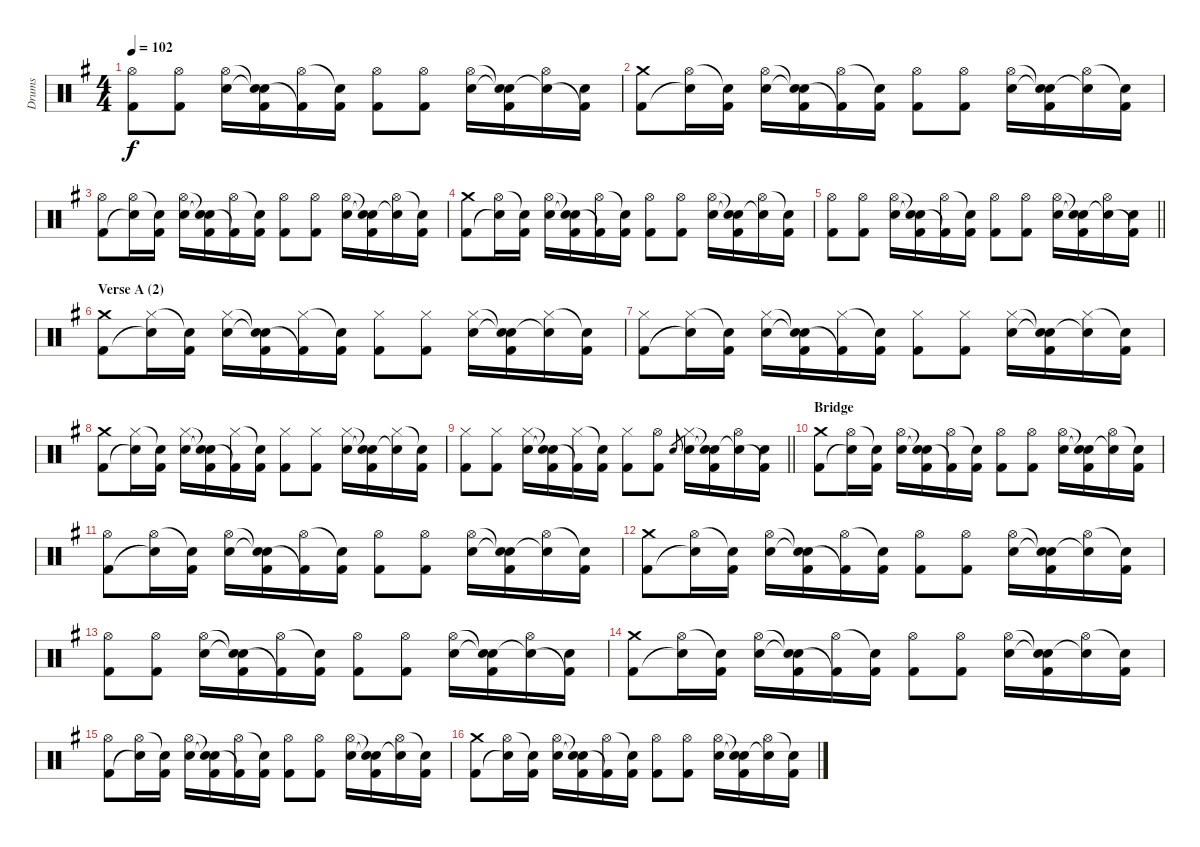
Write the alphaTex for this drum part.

\track ("Drums" "Drums") {instrument percussion}
\staff {score}
\articulation defaults
\ts (4 4)
\tempo 102
\clef neutral
\ks eminor
("Hi-Hat (open)" "Kick (hit) 2").8{dy f} ("Hi-Hat (open)" "Kick (hit) 2").8 ("Hi-Hat (open)" "Electric Snare (hit)").16 ("Snare (hit)"{t} "Snare (hit)"{t} "Kick (hit) 2").16 ("Hi-Hat (open)" "Kick (hit) 2"{t}).16 ("Snare (hit)"{t} "Kick (hit) 2").16 ("Hi-Hat (open)" "Kick (hit) 2").8 ("Hi-Hat (open)" "Kick (hit) 2").8 ("Hi-Hat (open)" "Electric Snare (hit)").16 ("Snare (hit)"{t} "Snare (hit)"{t} "Kick (hit) 2").16 ("Hi-Hat (open)" "Snare (hit)"{t}).16 ("Electric Snare (hit)" "Kick (hit) 2"{t}).16 |
("Crash medium (hit)" "Kick (hit) 2").8 ("Hi-Hat (open)" "Snare (hit)"{t}).16 ("Snare (hit)"{t} "Kick (hit) 2").16 ("Hi-Hat (open)" "Electric Snare (hit)").16 ("Snare (hit)"{t} "Snare (hit)"{t} "Kick (hit) 2").16 ("Hi-Hat (open)" "Kick (hit) 2"{t}).16 ("Snare (hit)"{t} "Kick (hit) 2").16 ("Hi-Hat (open)" "Kick (hit) 2").8 ("Hi-Hat (open)" "Kick (hit) 2").8 ("Hi-Hat (open)" "Electric Snare (hit)").16 ("Snare (hit)"{t} "Snare (hit)"{t} "Kick (hit) 2").16 ("Hi-Hat (open)" "Snare (hit)"{t}).16 ("Snare (hit)"{t} "Kick (hit) 2").16 |
("Hi-Hat (open)" "Kick (hit) 2").8 ("Hi-Hat (open)" "Snare (hit)"{t}).16 ("Snare (hit)"{t} "Kick (hit) 2").16 ("Hi-Hat (open)" "Electric Snare (hit)").16 ("Snare (hit)"{t} "Snare (hit)"{t} "Kick (hit) 2").16 ("Hi-Hat (open)" "Kick (hit) 2"{t}).16 ("Snare (hit)"{t} "Kick (hit) 2").16 ("Hi-Hat (open)" "Kick (hit) 2").8 ("Hi-Hat (open)" "Kick (hit) 2").8 ("Hi-Hat (open)" "Electric Snare (hit)").16 ("Snare (hit)"{t} "Snare (hit)"{t} "Kick (hit) 2").16 ("Hi-Hat (open)" "Snare (hit)"{t}).16 ("Snare (hit)"{t} "Kick (hit) 2").16 |
("Crash medium (hit)" "Kick (hit) 2").8 ("Hi-Hat (open)" "Snare (hit)"{t}).16 ("Snare (hit)"{t} "Kick (hit) 2").16 ("Hi-Hat (open)" "Electric Snare (hit)").16 ("Snare (hit)"{t} "Snare (hit)"{t} "Kick (hit) 2").16 ("Hi-Hat (open)" "Kick (hit) 2"{t}).16 ("Snare (hit)"{t} "Kick (hit) 2").16 ("Hi-Hat (open)" "Kick (hit) 2").8 ("Hi-Hat (open)" "Kick (hit) 2").8 ("Hi-Hat (open)" "Electric Snare (hit)").16 ("Snare (hit)"{t} "Snare (hit)"{t} "Kick (hit) 2").16 ("Hi-Hat (open)" "Snare (hit)"{t}).16 ("Snare (hit)"{t} "Kick (hit) 2").16 |
\barLineRight lightlight
("Hi-Hat (open)" "Kick (hit) 2").8 ("Hi-Hat (open)" "Kick (hit) 2").8 ("Hi-Hat (open)" "Electric Snare (hit)").16 ("Snare (hit)"{t} "Snare (hit)"{t} "Kick (hit) 2").16 ("Hi-Hat (open)" "Kick (hit) 2"{t}).16 ("Snare (hit)"{t} "Kick (hit) 2").16 ("Hi-Hat (open)" "Kick (hit) 2").8 ("Hi-Hat (open)" "Kick (hit) 2").8 ("Hi-Hat (open)" "Electric Snare (hit)").16 ("Snare (hit)"{t} "Snare (hit)"{t} "Kick (hit) 2").16 ("Hi-Hat (open)" "Snare (hit)"{t}).16 ("Electric Snare (hit)" "Kick (hit) 2"{t}).16 |
\section ("" "Verse A (2)")
("Crash medium (hit)" "Kick (hit) 2").8 ("Hi-Hat (closed)" "Snare (hit)"{t}).16 ("Snare (hit)"{t} "Kick (hit) 2").16 ("Hi-Hat (closed)" "Electric Snare (hit)").16 ("Snare (hit)"{t} "Snare (hit)"{t} "Kick (hit) 2").16 ("Hi-Hat (closed)" "Kick (hit) 2"{t}).16 ("Snare (hit)"{t} "Kick (hit) 2").16 ("Hi-Hat (closed)" "Kick (hit) 2").8 ("Hi-Hat (closed)" "Kick (hit) 2").8 ("Hi-Hat (closed)" "Electric Snare (hit)").16 ("Snare (hit)"{t} "Snare (hit)"{t} "Kick (hit) 2").16 ("Hi-Hat (closed)" "Snare (hit)"{t}).16 ("Snare (hit)"{t} "Kick (hit) 2").16 |
("Hi-Hat (closed)" "Kick (hit) 2").8 ("Hi-Hat (closed)" "Snare (hit)"{t}).16 ("Snare (hit)"{t} "Kick (hit) 2").16 ("Hi-Hat (closed)" "Electric Snare (hit)").16 ("Snare (hit)"{t} "Snare (hit)"{t} "Kick (hit) 2").16 ("Hi-Hat (closed)" "Kick (hit) 2"{t}).16 ("Snare (hit)"{t} "Kick (hit) 2").16 ("Hi-Hat (closed)" "Kick (hit) 2").8 ("Hi-Hat (closed)" "Kick (hit) 2").8 ("Hi-Hat (closed)" "Electric Snare (hit)").16 ("Snare (hit)"{t} "Snare (hit)"{t} "Kick (hit) 2").16 ("Hi-Hat (closed)" "Snare (hit)"{t}).16 ("Snare (hit)"{t} "Kick (hit) 2").16 |
("Crash medium (hit)" "Kick (hit) 2").8 ("Hi-Hat (closed)" "Snare (hit)"{t}).16 ("Snare (hit)"{t} "Kick (hit) 2").16 ("Hi-Hat (closed)" "Electric Snare (hit)").16 ("Snare (hit)"{t} "Snare (hit)"{t} "Kick (hit) 2").16 ("Hi-Hat (closed)" "Kick (hit) 2"{t}).16 ("Snare (hit)"{t} "Kick (hit) 2").16 ("Hi-Hat (closed)" "Kick (hit) 2").8 ("Hi-Hat (closed)" "Kick (hit) 2").8 ("Hi-Hat (closed)" "Electric Snare (hit)").16 ("Snare (hit)"{t} "Snare (hit)"{t} "Kick (hit) 2").16 ("Hi-Hat (closed)" "Snare (hit)"{t}).16 ("Snare (hit)"{t} "Kick (hit) 2").16 |
\barLineRight lightlight
("Hi-Hat (closed)" "Kick (hit) 2").8 ("Hi-Hat (closed)" "Kick (hit) 2").8 ("Hi-Hat (closed)" "Electric Snare (hit)").16 ("Snare (hit)"{t} "Snare (hit)"{t} "Kick (hit) 2").16 ("Hi-Hat (closed)" "Kick (hit) 2"{t}).16 ("Snare (hit)"{t} "Kick (hit) 2").16 ("Hi-Hat (closed)" "Kick (hit) 2").8 ("Hi-Hat (open)" "Kick (hit) 2").8 "Electric Snare (hit)".8{gr} ("Hi-Hat (closed)" "Electric Snare (hit)").16 ("Snare (hit)"{t} "Snare (hit)"{t} "Kick (hit) 2").16 ("Hi-Hat (open)" "Snare (hit)"{t}).16 ("Electric Snare (hit)" "Kick (hit) 2"{t}).16 |
\section ("" "Bridge")
("Crash medium (hit)" "Kick (hit) 2").8 ("Hi-Hat (open)" "Snare (hit)"{t}).16 ("Snare (hit)"{t} "Kick (hit) 2").16 ("Hi-Hat (open)" "Electric Snare (hit)").16 ("Snare (hit)"{t} "Snare (hit)"{t} "Kick (hit) 2").16 ("Hi-Hat (open)" "Kick (hit) 2"{t}).16 ("Snare (hit)"{t} "Kick (hit) 2").16 ("Hi-Hat (open)" "Kick (hit) 2").8 ("Hi-Hat (open)" "Kick (hit) 2").8 ("Hi-Hat (open)" "Electric Snare (hit)").16 ("Snare (hit)"{t} "Snare (hit)"{t} "Kick (hit) 2").16 ("Hi-Hat (open)" "Snare (hit)"{t}).16 ("Snare (hit)"{t} "Kick (hit) 2").16 |
("Hi-Hat (open)" "Kick (hit) 2").8 ("Hi-Hat (open)" "Snare (hit)"{t}).16 ("Snare (hit)"{t} "Kick (hit) 2").16 ("Hi-Hat (open)" "Electric Snare (hit)").16 ("Snare (hit)"{t} "Snare (hit)"{t} "Kick (hit) 2").16 ("Hi-Hat (open)" "Kick (hit) 2"{t}).16 ("Snare (hit)"{t} "Kick (hit) 2").16 ("Hi-Hat (open)" "Kick (hit) 2").8 ("Hi-Hat (open)" "Kick (hit) 2").8 ("Hi-Hat (open)" "Electric Snare (hit)").16 ("Snare (hit)"{t} "Snare (hit)"{t} "Kick (hit) 2").16 ("Hi-Hat (open)" "Snare (hit)"{t}).16 ("Snare (hit)"{t} "Kick (hit) 2").16 |
("Crash medium (hit)" "Kick (hit) 2").8 ("Hi-Hat (open)" "Snare (hit)"{t}).16 ("Snare (hit)"{t} "Kick (hit) 2").16 ("Hi-Hat (open)" "Electric Snare (hit)").16 ("Snare (hit)"{t} "Snare (hit)"{t} "Kick (hit) 2").16 ("Hi-Hat (open)" "Kick (hit) 2"{t}).16 ("Snare (hit)"{t} "Kick (hit) 2").16 ("Hi-Hat (open)" "Kick (hit) 2").8 ("Hi-Hat (open)" "Kick (hit) 2").8 ("Hi-Hat (open)" "Electric Snare (hit)").16 ("Snare (hit)"{t} "Snare (hit)"{t} "Kick (hit) 2").16 ("Hi-Hat (open)" "Snare (hit)"{t}).16 ("Snare (hit)"{t} "Kick (hit) 2").16 |
("Hi-Hat (open)" "Kick (hit) 2").8 ("Hi-Hat (open)" "Kick (hit) 2").8 ("Hi-Hat (open)" "Electric Snare (hit)").16 ("Snare (hit)"{t} "Snare (hit)"{t} "Kick (hit) 2").16 ("Hi-Hat (open)" "Kick (hit) 2"{t}).16 ("Snare (hit)"{t} "Kick (hit) 2").16 ("Hi-Hat (open)" "Kick (hit) 2").8 ("Hi-Hat (open)" "Kick (hit) 2").8 ("Hi-Hat (open)" "Electric Snare (hit)").16 ("Snare (hit)"{t} "Snare (hit)"{t} "Kick (hit) 2").16 ("Hi-Hat (open)" "Snare (hit)"{t}).16 ("Electric Snare (hit)" "Kick (hit) 2"{t}).16 |
("Crash medium (hit)" "Kick (hit) 2").8 ("Hi-Hat (open)" "Snare (hit)"{t}).16 ("Snare (hit)"{t} "Kick (hit) 2").16 ("Hi-Hat (open)" "Electric Snare (hit)").16 ("Snare (hit)"{t} "Snare (hit)"{t} "Kick (hit) 2").16 ("Hi-Hat (open)" "Kick (hit) 2"{t}).16 ("Snare (hit)"{t} "Kick (hit) 2").16 ("Hi-Hat (open)" "Kick (hit) 2").8 ("Hi-Hat (open)" "Kick (hit) 2").8 ("Hi-Hat (open)" "Electric Snare (hit)").16 ("Snare (hit)"{t} "Snare (hit)"{t} "Kick (hit) 2").16 ("Hi-Hat (open)" "Snare (hit)"{t}).16 ("Snare (hit)"{t} "Kick (hit) 2").16 |
("Hi-Hat (open)" "Kick (hit) 2").8 ("Hi-Hat (open)" "Snare (hit)"{t}).16 ("Snare (hit)"{t} "Kick (hit) 2").16 ("Hi-Hat (open)" "Electric Snare (hit)").16 ("Snare (hit)"{t} "Snare (hit)"{t} "Kick (hit) 2").16 ("Hi-Hat (open)" "Kick (hit) 2"{t}).16 ("Snare (hit)"{t} "Kick (hit) 2").16 ("Hi-Hat (open)" "Kick (hit) 2").8 ("Hi-Hat (open)" "Kick (hit) 2").8 ("Hi-Hat (open)" "Electric Snare (hit)").16 ("Snare (hit)"{t} "Snare (hit)"{t} "Kick (hit) 2").16 ("Hi-Hat (open)" "Snare (hit)"{t}).16 ("Snare (hit)"{t} "Kick (hit) 2").16 |
("Crash medium (hit)" "Kick (hit) 2").8 ("Hi-Hat (open)" "Snare (hit)"{t}).16 ("Snare (hit)"{t} "Kick (hit) 2").16 ("Hi-Hat (open)" "Electric Snare (hit)").16 ("Snare (hit)"{t} "Snare (hit)"{t} "Kick (hit) 2").16 ("Hi-Hat (open)" "Kick (hit) 2"{t}).16 ("Snare (hit)"{t} "Kick (hit) 2").16 ("Hi-Hat (open)" "Kick (hit) 2").8 ("Hi-Hat (open)" "Kick (hit) 2").8 ("Hi-Hat (open)" "Electric Snare (hit)").16 ("Snare (hit)"{t} "Snare (hit)"{t} "Kick (hit) 2").16 ("Hi-Hat (open)" "Snare (hit)"{t}).16 ("Snare (hit)"{t} "Kick (hit) 2").16
